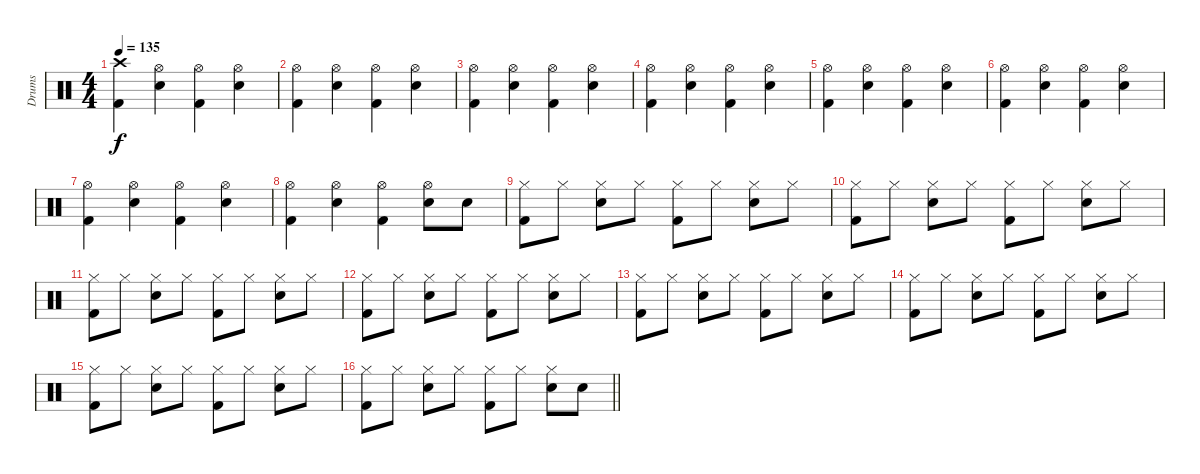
\track ("Drums" "Drums") {instrument percussion}
\staff {score}
\articulation defaults
\ts (4 4)
\tempo 135
\clef neutral
\ks c
("Crash high (hit)" "Kick (hit) 2").4{dy f} ("Hi-Hat (open)" "Electric Snare (hit)").4 ("Hi-Hat (open)" "Kick (hit) 2").4 ("Hi-Hat (open)" "Electric Snare (hit)").4 |
("Hi-Hat (open)" "Kick (hit) 2").4 ("Hi-Hat (open)" "Electric Snare (hit)").4 ("Hi-Hat (open)" "Kick (hit) 2").4 ("Hi-Hat (open)" "Electric Snare (hit)").4 |
("Hi-Hat (open)" "Kick (hit) 2").4 ("Hi-Hat (open)" "Electric Snare (hit)").4 ("Hi-Hat (open)" "Kick (hit) 2").4 ("Hi-Hat (open)" "Electric Snare (hit)").4 |
("Hi-Hat (open)" "Kick (hit) 2").4 ("Hi-Hat (open)" "Electric Snare (hit)").4 ("Hi-Hat (open)" "Kick (hit) 2").4 ("Hi-Hat (open)" "Electric Snare (hit)").4 |
("Hi-Hat (open)" "Kick (hit) 2").4 ("Hi-Hat (open)" "Electric Snare (hit)").4 ("Hi-Hat (open)" "Kick (hit) 2").4 ("Hi-Hat (open)" "Electric Snare (hit)").4 |
("Hi-Hat (open)" "Kick (hit) 2").4 ("Hi-Hat (open)" "Electric Snare (hit)").4 ("Hi-Hat (open)" "Kick (hit) 2").4 ("Hi-Hat (open)" "Electric Snare (hit)").4 |
("Hi-Hat (open)" "Kick (hit) 2").4 ("Hi-Hat (open)" "Electric Snare (hit)").4 ("Hi-Hat (open)" "Kick (hit) 2").4 ("Hi-Hat (open)" "Electric Snare (hit)").4 |
("Hi-Hat (open)" "Kick (hit) 2").4 ("Hi-Hat (open)" "Electric Snare (hit)").4 ("Hi-Hat (open)" "Kick (hit) 2").4 ("Hi-Hat (open)" "Electric Snare (hit)").8 "Electric Snare (hit)".8 |
("Hi-Hat (closed)" "Kick (hit) 2").8 "Hi-Hat (closed)".8 ("Hi-Hat (closed)" "Electric Snare (hit)").8 "Hi-Hat (closed)".8 ("Hi-Hat (closed)" "Kick (hit) 2").8 "Hi-Hat (closed)".8 ("Hi-Hat (closed)" "Electric Snare (hit)").8 "Hi-Hat (closed)".8 |
("Hi-Hat (closed)" "Kick (hit) 2").8 "Hi-Hat (closed)".8 ("Hi-Hat (closed)" "Electric Snare (hit)").8 "Hi-Hat (closed)".8 ("Hi-Hat (closed)" "Kick (hit) 2").8 "Hi-Hat (closed)".8 ("Hi-Hat (closed)" "Electric Snare (hit)").8 "Hi-Hat (closed)".8 |
("Hi-Hat (closed)" "Kick (hit) 2").8 "Hi-Hat (closed)".8 ("Hi-Hat (closed)" "Electric Snare (hit)").8 "Hi-Hat (closed)".8 ("Hi-Hat (closed)" "Kick (hit) 2").8 "Hi-Hat (closed)".8 ("Hi-Hat (closed)" "Electric Snare (hit)").8 "Hi-Hat (closed)".8 |
("Hi-Hat (closed)" "Kick (hit) 2").8 "Hi-Hat (closed)".8 ("Hi-Hat (closed)" "Electric Snare (hit)").8 "Hi-Hat (closed)".8 ("Hi-Hat (closed)" "Kick (hit) 2").8 "Hi-Hat (closed)".8 ("Hi-Hat (closed)" "Electric Snare (hit)").8 "Hi-Hat (closed)".8 |
("Hi-Hat (closed)" "Kick (hit) 2").8 "Hi-Hat (closed)".8 ("Hi-Hat (closed)" "Electric Snare (hit)").8 "Hi-Hat (closed)".8 ("Hi-Hat (closed)" "Kick (hit) 2").8 "Hi-Hat (closed)".8 ("Hi-Hat (closed)" "Electric Snare (hit)").8 "Hi-Hat (closed)".8 |
("Hi-Hat (closed)" "Kick (hit) 2").8 "Hi-Hat (closed)".8 ("Hi-Hat (closed)" "Electric Snare (hit)").8 "Hi-Hat (closed)".8 ("Hi-Hat (closed)" "Kick (hit) 2").8 "Hi-Hat (closed)".8 ("Hi-Hat (closed)" "Electric Snare (hit)").8 "Hi-Hat (closed)".8 |
("Hi-Hat (closed)" "Kick (hit) 2").8 "Hi-Hat (closed)".8 ("Hi-Hat (closed)" "Electric Snare (hit)").8 "Hi-Hat (closed)".8 ("Hi-Hat (closed)" "Kick (hit) 2").8 "Hi-Hat (closed)".8 ("Hi-Hat (closed)" "Electric Snare (hit)").8 "Hi-Hat (closed)".8 |
\barLineRight lightlight
("Hi-Hat (closed)" "Kick (hit) 2").8 "Hi-Hat (closed)".8 ("Hi-Hat (closed)" "Electric Snare (hit)").8 "Hi-Hat (closed)".8 ("Hi-Hat (closed)" "Kick (hit) 2").8 "Hi-Hat (closed)".8 ("Hi-Hat (closed)" "Electric Snare (hit)").8 "Electric Snare (hit)".8
